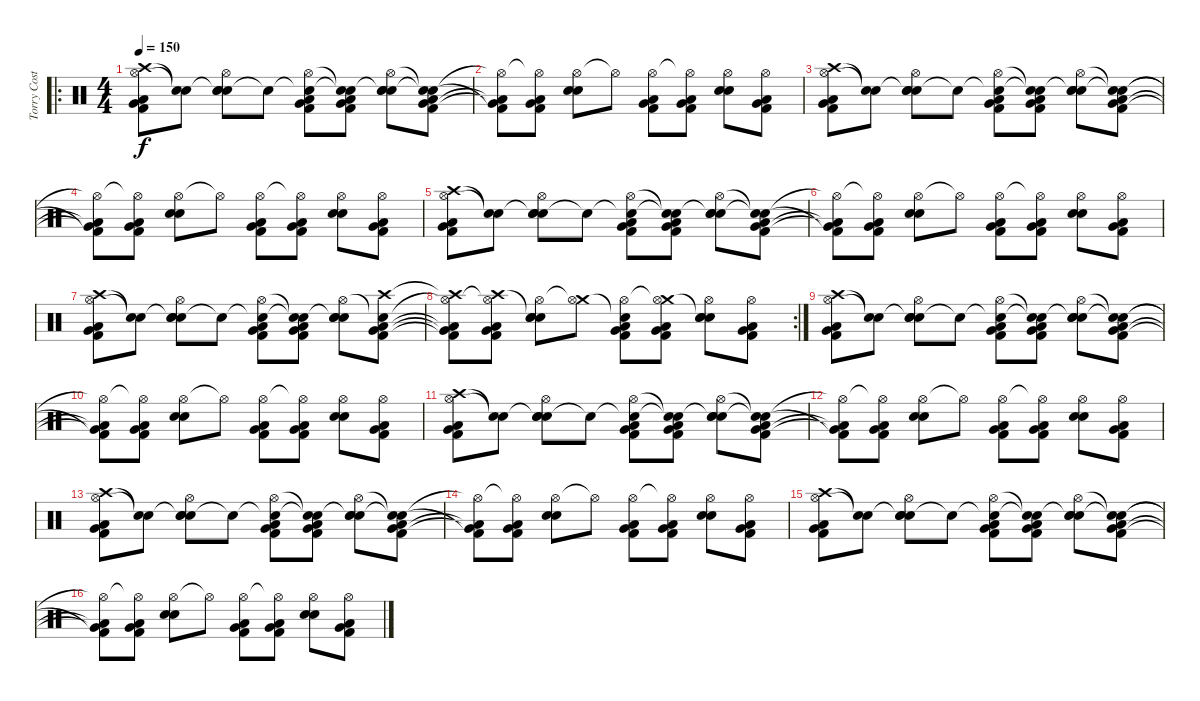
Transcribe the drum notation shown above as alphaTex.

\track ("Torry Costellano" "Torry Cost") {instrument percussion bank 127}
\staff {score}
\articulation defaults
\ro
\ts (4 4)
\tempo 150
\clef neutral
\ks c
("Crash high (hit)" "Hi-Hat (open)" "Kick (hit) 2" "Very Low Tom (hit)" "Low Tom (hit)").8{dy f} ("Snare (hit)"{t} "Snare (hit)"{t}).8 ("Snare (hit)"{t} "Hi-Hat (open)" "Electric Snare (hit)" "Snare (hit) 2").8 "Snare (hit)"{t}.8 ("Snare (hit)"{t} "Hi-Hat (open)" "Kick (hit) 2" "Very Low Tom (hit)" "Low Tom (hit)").8 ("Snare (hit)"{t} "Snare (hit)"{t} "Kick (hit) 2" "Very Low Tom (hit)" "Low Tom (hit)").8 ("Snare (hit)"{t} "Hi-Hat (open)" "Electric Snare (hit)" "Snare (hit) 2").8 ("Snare (hit)"{t} "Snare (hit)"{t} "Kick (hit) 2" "Very Low Tom (hit)" "Low Tom (hit)").8 |
("Hi-Hat (open)"{t} "Kick (hit) 2"{t} "Very Low Tom (hit)"{t} "Low Tom (hit)"{t}).8 ("Hi-Hat (open)"{t} "Low Tom (hit)" "Very Low Tom (hit)" "Kick (hit) 2").8 ("Hi-Hat (open)" "Electric Snare (hit)" "Snare (hit) 2").8 "Hi-Hat (open)"{t}.8 ("Hi-Hat (open)" "Low Tom (hit)" "Very Low Tom (hit)" "Kick (hit) 2").8 ("Hi-Hat (open)"{t} "Low Tom (hit)" "Very Low Tom (hit)" "Kick (hit) 2").8 ("Hi-Hat (open)" "Snare (hit) 2" "Electric Snare (hit)").8 ("Hi-Hat (open)" "Low Tom (hit)" "Very Low Tom (hit)" "Kick (hit) 2").8 |
("Crash high (hit)" "Hi-Hat (open)" "Kick (hit) 2" "Very Low Tom (hit)" "Low Tom (hit)").8 ("Snare (hit)"{t} "Snare (hit)"{t}).8 ("Snare (hit)"{t} "Hi-Hat (open)" "Electric Snare (hit)" "Snare (hit) 2").8 "Snare (hit)"{t}.8 ("Snare (hit)"{t} "Hi-Hat (open)" "Kick (hit) 2" "Very Low Tom (hit)" "Low Tom (hit)").8 ("Snare (hit)"{t} "Snare (hit)"{t} "Kick (hit) 2" "Very Low Tom (hit)" "Low Tom (hit)").8 ("Snare (hit)"{t} "Hi-Hat (open)" "Electric Snare (hit)" "Snare (hit) 2").8 ("Snare (hit)"{t} "Snare (hit)"{t} "Kick (hit) 2" "Very Low Tom (hit)" "Low Tom (hit)").8 |
("Hi-Hat (open)"{t} "Kick (hit) 2"{t} "Very Low Tom (hit)"{t} "Low Tom (hit)"{t}).8 ("Hi-Hat (open)"{t} "Low Tom (hit)" "Very Low Tom (hit)" "Kick (hit) 2").8 ("Hi-Hat (open)" "Electric Snare (hit)" "Snare (hit) 2").8 "Hi-Hat (open)"{t}.8 ("Hi-Hat (open)" "Low Tom (hit)" "Very Low Tom (hit)" "Kick (hit) 2").8 ("Hi-Hat (open)"{t} "Low Tom (hit)" "Very Low Tom (hit)" "Kick (hit) 2").8 ("Hi-Hat (open)" "Snare (hit) 2" "Electric Snare (hit)").8 ("Hi-Hat (open)" "Low Tom (hit)" "Very Low Tom (hit)" "Kick (hit) 2").8 |
("Crash high (hit)" "Hi-Hat (open)" "Kick (hit) 2" "Very Low Tom (hit)" "Low Tom (hit)").8 ("Snare (hit)"{t} "Snare (hit)"{t}).8 ("Snare (hit)"{t} "Hi-Hat (open)" "Electric Snare (hit)" "Snare (hit) 2").8 "Snare (hit)"{t}.8 ("Snare (hit)"{t} "Hi-Hat (open)" "Kick (hit) 2" "Very Low Tom (hit)" "Low Tom (hit)").8 ("Snare (hit)"{t} "Snare (hit)"{t} "Kick (hit) 2" "Very Low Tom (hit)" "Low Tom (hit)").8 ("Snare (hit)"{t} "Hi-Hat (open)" "Electric Snare (hit)" "Snare (hit) 2").8 ("Snare (hit)"{t} "Snare (hit)"{t} "Kick (hit) 2" "Very Low Tom (hit)" "Low Tom (hit)").8 |
("Hi-Hat (open)"{t} "Kick (hit) 2"{t} "Very Low Tom (hit)"{t} "Low Tom (hit)"{t}).8 ("Hi-Hat (open)"{t} "Low Tom (hit)" "Very Low Tom (hit)" "Kick (hit) 2").8 ("Hi-Hat (open)" "Electric Snare (hit)" "Snare (hit) 2").8 "Hi-Hat (open)"{t}.8 ("Hi-Hat (open)" "Low Tom (hit)" "Very Low Tom (hit)" "Kick (hit) 2").8 ("Hi-Hat (open)"{t} "Low Tom (hit)" "Very Low Tom (hit)" "Kick (hit) 2").8 ("Hi-Hat (open)" "Snare (hit) 2" "Electric Snare (hit)").8 ("Hi-Hat (open)" "Low Tom (hit)" "Very Low Tom (hit)" "Kick (hit) 2").8 |
("Crash high (hit)" "Hi-Hat (open)" "Kick (hit) 2" "Very Low Tom (hit)" "Low Tom (hit)").8 ("Snare (hit)"{t} "Snare (hit)"{t}).8 ("Snare (hit)"{t} "Hi-Hat (open)" "Electric Snare (hit)" "Snare (hit) 2").8 "Snare (hit)"{t}.8 ("Snare (hit)"{t} "Hi-Hat (open)" "Kick (hit) 2" "Very Low Tom (hit)" "Low Tom (hit)").8 ("Snare (hit)"{t} "Snare (hit)"{t} "Kick (hit) 2" "Very Low Tom (hit)" "Low Tom (hit)").8 ("Snare (hit)"{t} "Hi-Hat (open)" "Electric Snare (hit)" "Snare (hit) 2").8 ("Crash high (hit)" "Snare (hit)"{t} "Kick (hit) 2" "Very Low Tom (hit)" "Low Tom (hit)").8 |
\rc 2
("Crash high (hit)"{t} "Hi-Hat (open)"{t} "Kick (hit) 2"{t} "Very Low Tom (hit)"{t} "Low Tom (hit)"{t}).8 ("Crash high (hit)" "Hi-Hat (open)"{t} "Low Tom (hit)" "Very Low Tom (hit)" "Kick (hit) 2").8 ("Snare (hit)"{t} "Hi-Hat (open)" "Electric Snare (hit)" "Snare (hit) 2").8 ("Crash medium (hit)" "Hi-Hat (open)"{t}).8 ("Snare (hit)"{t} "Hi-Hat (open)" "Low Tom (hit)" "Very Low Tom (hit)" "Kick (hit) 2").8 ("Crash medium (hit)" "Hi-Hat (open)"{t} "Low Tom (hit)" "Very Low Tom (hit)" "Kick (hit) 2").8 ("Snare (hit)"{t} "Hi-Hat (open)" "Snare (hit) 2" "Electric Snare (hit)").8 ("Hi-Hat (open)" "Low Tom (hit)" "Very Low Tom (hit)" "Kick (hit) 2").8 |
("Crash high (hit)" "Hi-Hat (open)" "Kick (hit) 2" "Very Low Tom (hit)" "Low Tom (hit)").8 ("Snare (hit)"{t} "Snare (hit)"{t}).8 ("Snare (hit)"{t} "Hi-Hat (open)" "Electric Snare (hit)" "Snare (hit) 2").8 "Snare (hit)"{t}.8 ("Snare (hit)"{t} "Hi-Hat (open)" "Kick (hit) 2" "Very Low Tom (hit)" "Low Tom (hit)").8 ("Snare (hit)"{t} "Snare (hit)"{t} "Kick (hit) 2" "Very Low Tom (hit)" "Low Tom (hit)").8 ("Snare (hit)"{t} "Hi-Hat (open)" "Electric Snare (hit)" "Snare (hit) 2").8 ("Snare (hit)"{t} "Snare (hit)"{t} "Kick (hit) 2" "Very Low Tom (hit)" "Low Tom (hit)").8 |
("Hi-Hat (open)"{t} "Kick (hit) 2"{t} "Very Low Tom (hit)"{t} "Low Tom (hit)"{t}).8 ("Hi-Hat (open)"{t} "Low Tom (hit)" "Very Low Tom (hit)" "Kick (hit) 2").8 ("Hi-Hat (open)" "Electric Snare (hit)" "Snare (hit) 2").8 "Hi-Hat (open)"{t}.8 ("Hi-Hat (open)" "Low Tom (hit)" "Very Low Tom (hit)" "Kick (hit) 2").8 ("Hi-Hat (open)"{t} "Low Tom (hit)" "Very Low Tom (hit)" "Kick (hit) 2").8 ("Hi-Hat (open)" "Snare (hit) 2" "Electric Snare (hit)").8 ("Hi-Hat (open)" "Low Tom (hit)" "Very Low Tom (hit)" "Kick (hit) 2").8 |
("Crash high (hit)" "Hi-Hat (open)" "Kick (hit) 2" "Very Low Tom (hit)" "Low Tom (hit)").8 ("Snare (hit)"{t} "Snare (hit)"{t}).8 ("Snare (hit)"{t} "Hi-Hat (open)" "Electric Snare (hit)" "Snare (hit) 2").8 "Snare (hit)"{t}.8 ("Snare (hit)"{t} "Hi-Hat (open)" "Kick (hit) 2" "Very Low Tom (hit)" "Low Tom (hit)").8 ("Snare (hit)"{t} "Snare (hit)"{t} "Kick (hit) 2" "Very Low Tom (hit)" "Low Tom (hit)").8 ("Snare (hit)"{t} "Hi-Hat (open)" "Electric Snare (hit)" "Snare (hit) 2").8 ("Snare (hit)"{t} "Snare (hit)"{t} "Kick (hit) 2" "Very Low Tom (hit)" "Low Tom (hit)").8 |
("Hi-Hat (open)"{t} "Kick (hit) 2"{t} "Very Low Tom (hit)"{t} "Low Tom (hit)"{t}).8 ("Hi-Hat (open)"{t} "Low Tom (hit)" "Very Low Tom (hit)" "Kick (hit) 2").8 ("Hi-Hat (open)" "Electric Snare (hit)" "Snare (hit) 2").8 "Hi-Hat (open)"{t}.8 ("Hi-Hat (open)" "Low Tom (hit)" "Very Low Tom (hit)" "Kick (hit) 2").8 ("Hi-Hat (open)"{t} "Low Tom (hit)" "Very Low Tom (hit)" "Kick (hit) 2").8 ("Hi-Hat (open)" "Snare (hit) 2" "Electric Snare (hit)").8 ("Hi-Hat (open)" "Low Tom (hit)" "Very Low Tom (hit)" "Kick (hit) 2").8 |
("Crash high (hit)" "Hi-Hat (open)" "Kick (hit) 2" "Very Low Tom (hit)" "Low Tom (hit)").8 ("Snare (hit)"{t} "Snare (hit)"{t}).8 ("Snare (hit)"{t} "Hi-Hat (open)" "Electric Snare (hit)" "Snare (hit) 2").8 "Snare (hit)"{t}.8 ("Snare (hit)"{t} "Hi-Hat (open)" "Kick (hit) 2" "Very Low Tom (hit)" "Low Tom (hit)").8 ("Snare (hit)"{t} "Snare (hit)"{t} "Kick (hit) 2" "Very Low Tom (hit)" "Low Tom (hit)").8 ("Snare (hit)"{t} "Hi-Hat (open)" "Electric Snare (hit)" "Snare (hit) 2").8 ("Snare (hit)"{t} "Snare (hit)"{t} "Kick (hit) 2" "Very Low Tom (hit)" "Low Tom (hit)").8 |
("Hi-Hat (open)"{t} "Kick (hit) 2"{t} "Very Low Tom (hit)"{t} "Low Tom (hit)"{t}).8 ("Hi-Hat (open)"{t} "Low Tom (hit)" "Very Low Tom (hit)" "Kick (hit) 2").8 ("Hi-Hat (open)" "Electric Snare (hit)" "Snare (hit) 2").8 "Hi-Hat (open)"{t}.8 ("Hi-Hat (open)" "Low Tom (hit)" "Very Low Tom (hit)" "Kick (hit) 2").8 ("Hi-Hat (open)"{t} "Low Tom (hit)" "Very Low Tom (hit)" "Kick (hit) 2").8 ("Hi-Hat (open)" "Snare (hit) 2" "Electric Snare (hit)").8 ("Hi-Hat (open)" "Low Tom (hit)" "Very Low Tom (hit)" "Kick (hit) 2").8 |
("Crash high (hit)" "Hi-Hat (open)" "Kick (hit) 2" "Very Low Tom (hit)" "Low Tom (hit)").8 ("Snare (hit)"{t} "Snare (hit)"{t}).8 ("Snare (hit)"{t} "Hi-Hat (open)" "Electric Snare (hit)" "Snare (hit) 2").8 "Snare (hit)"{t}.8 ("Snare (hit)"{t} "Hi-Hat (open)" "Kick (hit) 2" "Very Low Tom (hit)" "Low Tom (hit)").8 ("Snare (hit)"{t} "Snare (hit)"{t} "Kick (hit) 2" "Very Low Tom (hit)" "Low Tom (hit)").8 ("Snare (hit)"{t} "Hi-Hat (open)" "Electric Snare (hit)" "Snare (hit) 2").8 ("Snare (hit)"{t} "Snare (hit)"{t} "Kick (hit) 2" "Very Low Tom (hit)" "Low Tom (hit)").8 |
("Hi-Hat (open)"{t} "Kick (hit) 2"{t} "Very Low Tom (hit)"{t} "Low Tom (hit)"{t}).8 ("Hi-Hat (open)"{t} "Low Tom (hit)" "Very Low Tom (hit)" "Kick (hit) 2").8 ("Hi-Hat (open)" "Electric Snare (hit)" "Snare (hit) 2").8 "Hi-Hat (open)"{t}.8 ("Hi-Hat (open)" "Low Tom (hit)" "Very Low Tom (hit)" "Kick (hit) 2").8 ("Hi-Hat (open)"{t} "Low Tom (hit)" "Very Low Tom (hit)" "Kick (hit) 2").8 ("Hi-Hat (open)" "Snare (hit) 2" "Electric Snare (hit)").8 ("Hi-Hat (open)" "Low Tom (hit)" "Very Low Tom (hit)" "Kick (hit) 2").8
